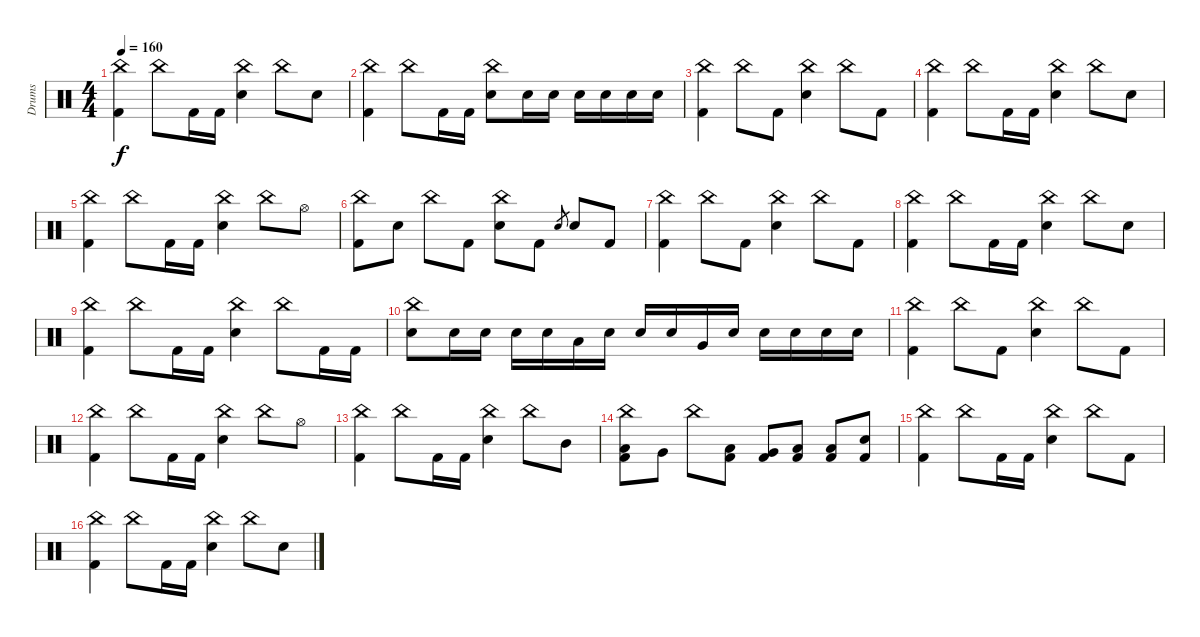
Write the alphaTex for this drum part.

\track ("Drums" "Drums") {instrument percussion}
\staff {score}
\articulation defaults
\ts (4 4)
\tempo 160
\clef neutral
\ks c
("China (hit)" "Kick (hit) 2").4{dy f volume 10} "China (hit)".8 "Kick (hit) 2".16 "Kick (hit) 2".16 ("China (hit)" "Electric Snare (hit)").4 "China (hit)".8 "Electric Snare (hit)".8 |
("China (hit)" "Kick (hit) 2").4 "China (hit)".8 "Kick (hit) 2".16 "Kick (hit) 2".16 ("China (hit)" "Electric Snare (hit)").8 "Electric Snare (hit)".16 "Electric Snare (hit)".16 "Electric Snare (hit)".16 "Electric Snare (hit)".16 "Electric Snare (hit)".16 "Electric Snare (hit)".16 |
("China (hit)" "Kick (hit) 2").4 "China (hit)".8 "Kick (hit) 2".8 ("China (hit)" "Electric Snare (hit)").4 "China (hit)".8 "Kick (hit) 2".8 |
("China (hit)" "Kick (hit) 2").4{volume 9} "China (hit)".8 "Kick (hit) 2".16 "Kick (hit) 2".16 ("China (hit)" "Electric Snare (hit)").4 "China (hit)".8 "Electric Snare (hit)".8 |
("China (hit)" "Kick (hit) 2").4 "China (hit)".8 "Kick (hit) 2".16 "Kick (hit) 2".16 ("China (hit)" "Electric Snare (hit)").4 "China (hit)".8 "Hi-Hat (open)".8 |
("China (hit)" "Kick (hit) 2").8 "Electric Snare (hit)".8 "China (hit)".8 "Kick (hit) 2".8 ("China (hit)" "Electric Snare (hit)").8 "Kick (hit) 2".8 "Electric Snare (hit)".8{gr} "Electric Snare (hit)".8 "Kick (hit) 2".8 |
("China (hit)" "Kick (hit) 2").4{volume 8} "China (hit)".8 "Kick (hit) 2".8 ("China (hit)" "Electric Snare (hit)").4 "China (hit)".8 "Kick (hit) 2".8 |
("China (hit)" "Kick (hit) 2").4 "China (hit)".8 "Kick (hit) 2".16 "Kick (hit) 2".16 ("China (hit)" "Electric Snare (hit)").4 "China (hit)".8 "Electric Snare (hit)".8 |
("China (hit)" "Kick (hit) 2").4{volume 7} "China (hit)".8 "Kick (hit) 2".16 "Kick (hit) 2".16 ("China (hit)" "Electric Snare (hit)").4 "China (hit)".8 "Kick (hit) 2".16 "Kick (hit) 2".16 |
("China (hit)" "Electric Snare (hit)").8 "Electric Snare (hit)".16 "Electric Snare (hit)".16 "Electric Snare (hit)".16 "Electric Snare (hit)".16 "Low Tom (hit)".16 "Electric Snare (hit)".16 "Electric Snare (hit)".16 "Electric Snare (hit)".16 "Very Low Tom (hit)".16 "Electric Snare (hit)".16 "Electric Snare (hit)".16 "Electric Snare (hit)".16 "Electric Snare (hit)".16 "Electric Snare (hit)".16 |
("China (hit)" "Kick (hit) 2").4{volume 6} "China (hit)".8 "Kick (hit) 2".8 ("China (hit)" "Electric Snare (hit)").4 "China (hit)".8 "Kick (hit) 2".8 |
("China (hit)" "Kick (hit) 2").4 "China (hit)".8 "Kick (hit) 2".16 "Kick (hit) 2".16 ("China (hit)" "Electric Snare (hit)").4 "China (hit)".8 "Hi-Hat (open)".8 |
("China (hit)" "Kick (hit) 2").4{volume 5} "China (hit)".8 "Kick (hit) 2".16 "Kick (hit) 2".16 ("China (hit)" "Electric Snare (hit)").4 "China (hit)".8 "Mid Tom (hit)".8 |
("China (hit)" "Low Tom (hit)" "Kick (hit) 2").8 "Very Low Tom (hit)".8 "China (hit)".8 ("Low Tom (hit)" "Kick (hit) 2").8 ("Very Low Tom (hit)" "Kick (hit) 2").8 ("Low Floor Tom (hit)" "Kick (hit) 2").8 ("Low Floor Tom (hit)" "Kick (hit) 2").8 ("Electric Snare (hit)" "Kick (hit) 2").8 |
("China (hit)" "Kick (hit) 2").4{volume 4} "China (hit)".8 "Kick (hit) 2".16 "Kick (hit) 2".16 ("China (hit)" "Electric Snare (hit)").4 "China (hit)".8 "Kick (hit) 2".8 |
("China (hit)" "Kick (hit) 2").4 "China (hit)".8 "Kick (hit) 2".16 "Kick (hit) 2".16 ("China (hit)" "Electric Snare (hit)").4 "China (hit)".8 "Electric Snare (hit)".8
